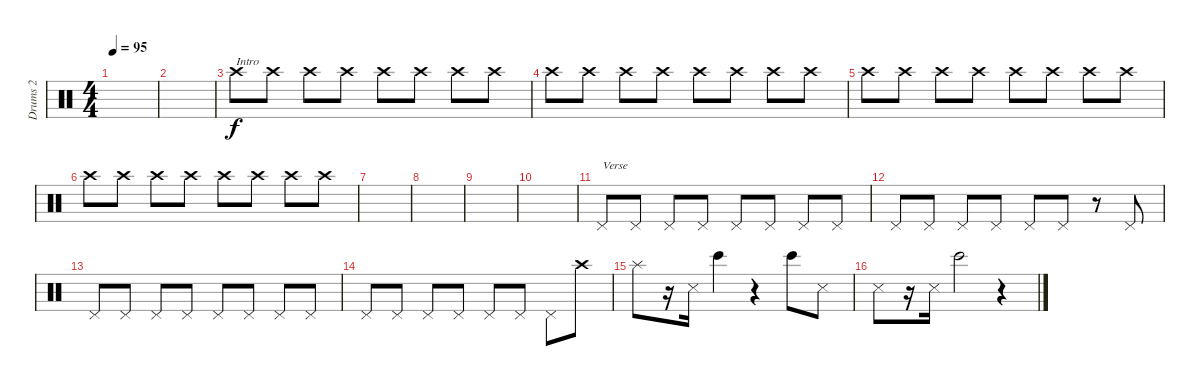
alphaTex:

\track ("Drums 2" "Drums 2") {instrument percussion}
\staff {score}
\articulation defaults
\ts (4 4)
\tempo 95
\clef neutral
\ks c
|
|
"Crash high (hit)".8{txt "Intro"} "Crash high (hit)".8 "Crash high (hit)".8 "Crash high (hit)".8 "Crash high (hit)".8 "Crash high (hit)".8 "Crash high (hit)".8 "Crash high (hit)".8 |
"Crash high (hit)".8 "Crash high (hit)".8 "Crash high (hit)".8 "Crash high (hit)".8 "Crash high (hit)".8 "Crash high (hit)".8 "Crash high (hit)".8 "Crash high (hit)".8 |
"Crash high (hit)".8 "Crash high (hit)".8 "Crash high (hit)".8 "Crash high (hit)".8 "Crash high (hit)".8 "Crash high (hit)".8 "Crash high (hit)".8 "Crash high (hit)".8 |
"Crash high (hit)".8 "Crash high (hit)".8 "Crash high (hit)".8 "Crash high (hit)".8 "Crash high (hit)".8 "Crash high (hit)".8 "Crash high (hit)".8 "Crash high (hit)".8 |
|
|
|
|
"Pedal Hi-Hat (hit)".8{txt "Verse"} "Pedal Hi-Hat (hit)".8 "Pedal Hi-Hat (hit)".8 "Pedal Hi-Hat (hit)".8 "Pedal Hi-Hat (hit)".8 "Pedal Hi-Hat (hit)".8 "Pedal Hi-Hat (hit)".8 "Pedal Hi-Hat (hit)".8 |
"Pedal Hi-Hat (hit)".8 "Pedal Hi-Hat (hit)".8 "Pedal Hi-Hat (hit)".8 "Pedal Hi-Hat (hit)".8 "Pedal Hi-Hat (hit)".8 "Pedal Hi-Hat (hit)".8 r.8 "Pedal Hi-Hat (hit)".8 |
"Pedal Hi-Hat (hit)".8 "Pedal Hi-Hat (hit)".8 "Pedal Hi-Hat (hit)".8 "Pedal Hi-Hat (hit)".8 "Pedal Hi-Hat (hit)".8 "Pedal Hi-Hat (hit)".8 "Pedal Hi-Hat (hit)".8 "Pedal Hi-Hat (hit)".8 |
"Pedal Hi-Hat (hit)".8 "Pedal Hi-Hat (hit)".8 "Pedal Hi-Hat (hit)".8 "Pedal Hi-Hat (hit)".8 "Pedal Hi-Hat (hit)".8 "Pedal Hi-Hat (hit)".8 "Pedal Hi-Hat (hit)".8 "Crash high (hit)".8 |
"Splash (hit)".8 r.16 "Snare (side stick) 3".16 "Bongo High (hit)".4 r.4 "Bongo High (hit)".8 "Snare (side stick) 3".8 |
"Snare (side stick) 3".8 r.16 "Snare (side stick) 3".16 "Bongo High (hit)".2 r.4
